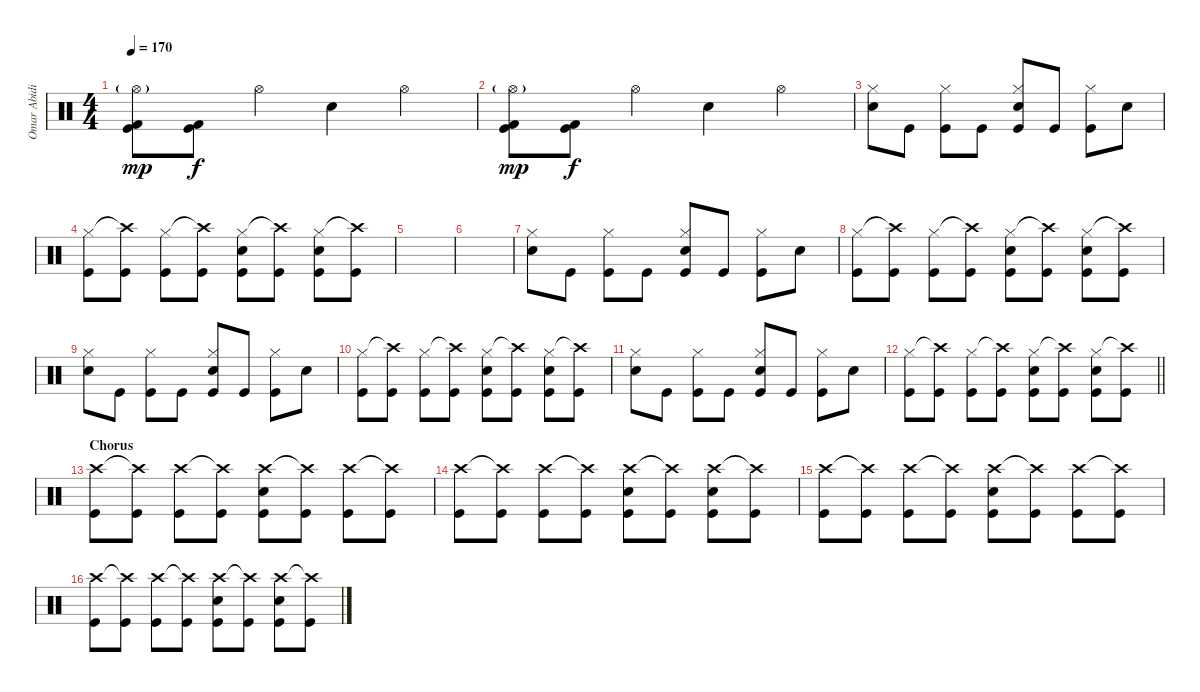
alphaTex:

\track ("Omar Abidi" "Omar Abidi") {instrument percussion}
\staff {score}
\articulation defaults
\ts (4 4)
\tempo 170
\clef neutral
\ks c
("Hi-Hat (open)"{g} "Kick (hit) 2" "Kick (hit)").8{dy mp} ("Kick (hit) 2" "Kick (hit)").8{dy f} "Hi-Hat (open)".4 "Snare (hit) 2".4 "Hi-Hat (open)".4 |
("Hi-Hat (open)"{g} "Kick (hit) 2" "Kick (hit)").8{dy mp} ("Kick (hit) 2" "Kick (hit)").8{dy f} "Hi-Hat (open)".4 "Snare (hit) 2".4 "Hi-Hat (open)".4 |
("Hi-Hat (closed)" "Snare (hit) 2").8 "Kick (hit)".8 ("Hi-Hat (closed)" "Kick (hit)").8 "Kick (hit)".8 ("Hi-Hat (closed)" "Electric Snare (hit)" "Kick (hit)").8 "Kick (hit)".8 ("Hi-Hat (closed)" "Kick (hit)").8 "Snare (hit) 2".8 |
("Hi-Hat (closed)" "Kick (hit)").8 ("Crash high (hit)"{t} "Kick (hit)").8 ("Hi-Hat (closed)" "Kick (hit)").8 ("Crash high (hit)"{t} "Kick (hit)").8 ("Hi-Hat (closed)" "Electric Snare (hit)" "Kick (hit)").8 ("Crash high (hit)"{t} "Kick (hit)").8 ("Hi-Hat (closed)" "Electric Snare (hit)" "Kick (hit)").8 ("Crash high (hit)"{t} "Kick (hit)").8 |
|
|
("Hi-Hat (closed)" "Snare (hit) 2").8 "Kick (hit)".8 ("Hi-Hat (closed)" "Kick (hit)").8 "Kick (hit)".8 ("Hi-Hat (closed)" "Electric Snare (hit)" "Kick (hit)").8 "Kick (hit)".8 ("Hi-Hat (closed)" "Kick (hit)").8 "Snare (hit) 2".8 |
("Hi-Hat (closed)" "Kick (hit)").8 ("Crash high (hit)"{t} "Kick (hit)").8 ("Hi-Hat (closed)" "Kick (hit)").8 ("Crash high (hit)"{t} "Kick (hit)").8 ("Hi-Hat (closed)" "Electric Snare (hit)" "Kick (hit)").8 ("Crash high (hit)"{t} "Kick (hit)").8 ("Hi-Hat (closed)" "Electric Snare (hit)" "Kick (hit)").8 ("Crash high (hit)"{t} "Kick (hit)").8 |
("Hi-Hat (closed)" "Snare (hit) 2").8 "Kick (hit)".8 ("Hi-Hat (closed)" "Kick (hit)").8 "Kick (hit)".8 ("Hi-Hat (closed)" "Electric Snare (hit)" "Kick (hit)").8 "Kick (hit)".8 ("Hi-Hat (closed)" "Kick (hit)").8 "Snare (hit) 2".8 |
("Hi-Hat (closed)" "Kick (hit)").8 ("Crash high (hit)"{t} "Kick (hit)").8 ("Hi-Hat (closed)" "Kick (hit)").8 ("Crash high (hit)"{t} "Kick (hit)").8 ("Hi-Hat (closed)" "Electric Snare (hit)" "Kick (hit)").8 ("Crash high (hit)"{t} "Kick (hit)").8 ("Hi-Hat (closed)" "Electric Snare (hit)" "Kick (hit)").8 ("Crash high (hit)"{t} "Kick (hit)").8 |
("Hi-Hat (closed)" "Snare (hit) 2").8 "Kick (hit)".8 ("Hi-Hat (closed)" "Kick (hit)").8 "Kick (hit)".8 ("Hi-Hat (closed)" "Electric Snare (hit)" "Kick (hit)").8 "Kick (hit)".8 ("Hi-Hat (closed)" "Kick (hit)").8 "Snare (hit) 2".8 |
\barLineRight lightlight
("Hi-Hat (closed)" "Kick (hit)").8 ("Crash high (hit)"{t} "Kick (hit)").8 ("Hi-Hat (closed)" "Kick (hit)").8 ("Crash high (hit)"{t} "Kick (hit)").8 ("Hi-Hat (closed)" "Electric Snare (hit)" "Kick (hit)").8 ("Crash high (hit)"{t} "Kick (hit)").8 ("Hi-Hat (closed)" "Electric Snare (hit)" "Kick (hit)").8 ("Crash high (hit)"{t} "Kick (hit)").8 |
\section ("" "Chorus")
("Crash high (hit)" "Kick (hit)").8 ("Crash high (hit)"{t} "Kick (hit)").8 ("Crash high (hit)" "Kick (hit)").8 ("Crash high (hit)"{t} "Kick (hit)").8 ("Crash high (hit)" "Snare (hit) 2" "Kick (hit)").8 ("Crash high (hit)"{t} "Kick (hit)").8 ("Crash high (hit)" "Kick (hit)").8 ("Crash high (hit)"{t} "Kick (hit)").8 |
("Crash high (hit)" "Kick (hit)").8 ("Crash high (hit)"{t} "Kick (hit)").8 ("Crash high (hit)" "Kick (hit)").8 ("Crash high (hit)"{t} "Kick (hit)").8 ("Crash high (hit)" "Snare (hit) 2" "Kick (hit)").8 ("Crash high (hit)"{t} "Kick (hit)").8 ("Crash high (hit)" "Snare (hit) 2" "Kick (hit)").8 ("Crash high (hit)"{t} "Kick (hit)").8 |
("Crash high (hit)" "Kick (hit)").8 ("Crash high (hit)"{t} "Kick (hit)").8 ("Crash high (hit)" "Kick (hit)").8 ("Crash high (hit)"{t} "Kick (hit)").8 ("Crash high (hit)" "Snare (hit) 2" "Kick (hit)").8 ("Crash high (hit)"{t} "Kick (hit)").8 ("Crash high (hit)" "Kick (hit)").8 ("Crash high (hit)"{t} "Kick (hit)").8 |
("Crash high (hit)" "Kick (hit)").8 ("Crash high (hit)"{t} "Kick (hit)").8 ("Crash high (hit)" "Kick (hit)").8 ("Crash high (hit)"{t} "Kick (hit)").8 ("Crash high (hit)" "Snare (hit) 2" "Kick (hit)").8 ("Crash high (hit)"{t} "Kick (hit)").8 ("Crash high (hit)" "Snare (hit) 2" "Kick (hit)").8 ("Crash high (hit)"{t} "Kick (hit)").8
